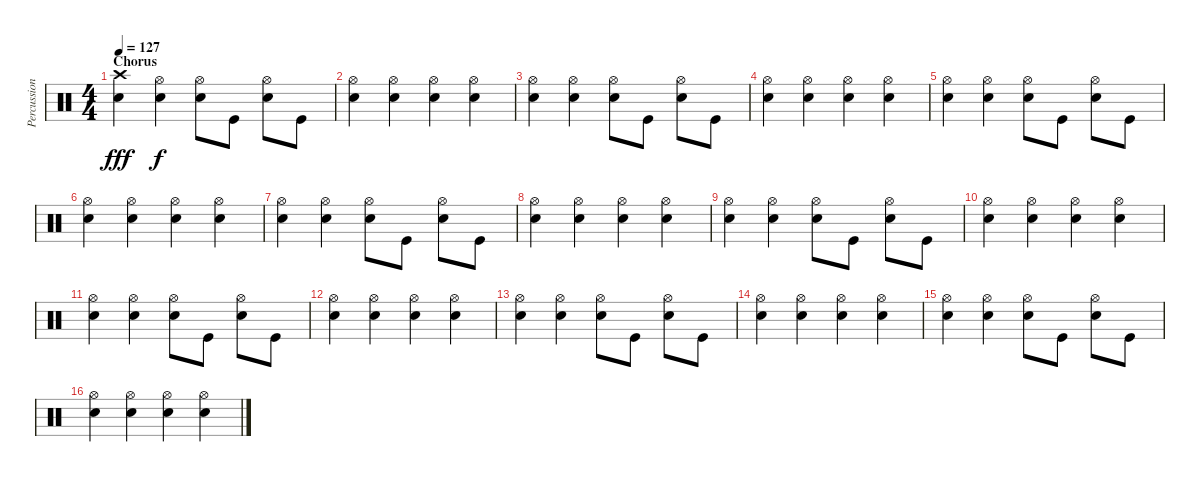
\track ("Percussion" "Percussion") {instrument percussion}
\staff {score}
\articulation defaults
\ts (4 4)
\section ("" "Chorus")
\tempo 127
\clef neutral
\ks c
("Crash high (hit)" "Electric Snare (hit)").4{dy fff} ("Hi-Hat (open)" "Electric Snare (hit)").4{dy f} ("Hi-Hat (open)" "Electric Snare (hit)").8 "Kick (hit)".8 ("Hi-Hat (open)" "Electric Snare (hit)").8 "Kick (hit)".8 |
("Hi-Hat (open)" "Electric Snare (hit)").4 ("Hi-Hat (open)" "Electric Snare (hit)").4 ("Hi-Hat (open)" "Electric Snare (hit)").4 ("Hi-Hat (open)" "Electric Snare (hit)").4 |
("Hi-Hat (open)" "Electric Snare (hit)").4 ("Hi-Hat (open)" "Electric Snare (hit)").4 ("Hi-Hat (open)" "Electric Snare (hit)").8 "Kick (hit)".8 ("Hi-Hat (open)" "Electric Snare (hit)").8 "Kick (hit)".8 |
("Hi-Hat (open)" "Electric Snare (hit)").4 ("Hi-Hat (open)" "Electric Snare (hit)").4 ("Hi-Hat (open)" "Electric Snare (hit)").4 ("Hi-Hat (open)" "Electric Snare (hit)").4 |
("Hi-Hat (open)" "Electric Snare (hit)").4 ("Hi-Hat (open)" "Electric Snare (hit)").4 ("Hi-Hat (open)" "Electric Snare (hit)").8 "Kick (hit)".8 ("Hi-Hat (open)" "Electric Snare (hit)").8 "Kick (hit)".8 |
("Hi-Hat (open)" "Electric Snare (hit)").4 ("Hi-Hat (open)" "Electric Snare (hit)").4 ("Hi-Hat (open)" "Electric Snare (hit)").4 ("Hi-Hat (open)" "Electric Snare (hit)").4 |
("Hi-Hat (open)" "Electric Snare (hit)").4 ("Hi-Hat (open)" "Electric Snare (hit)").4 ("Hi-Hat (open)" "Electric Snare (hit)").8 "Kick (hit)".8 ("Hi-Hat (open)" "Electric Snare (hit)").8 "Kick (hit)".8 |
("Hi-Hat (open)" "Electric Snare (hit)").4 ("Hi-Hat (open)" "Electric Snare (hit)").4 ("Hi-Hat (open)" "Electric Snare (hit)").4 ("Hi-Hat (open)" "Electric Snare (hit)").4 |
("Hi-Hat (open)" "Electric Snare (hit)").4 ("Hi-Hat (open)" "Electric Snare (hit)").4 ("Hi-Hat (open)" "Electric Snare (hit)").8 "Kick (hit)".8 ("Hi-Hat (open)" "Electric Snare (hit)").8 "Kick (hit)".8 |
("Hi-Hat (open)" "Electric Snare (hit)").4 ("Hi-Hat (open)" "Electric Snare (hit)").4 ("Hi-Hat (open)" "Electric Snare (hit)").4 ("Hi-Hat (open)" "Electric Snare (hit)").4 |
("Hi-Hat (open)" "Electric Snare (hit)").4 ("Hi-Hat (open)" "Electric Snare (hit)").4 ("Hi-Hat (open)" "Electric Snare (hit)").8 "Kick (hit)".8 ("Hi-Hat (open)" "Electric Snare (hit)").8 "Kick (hit)".8 |
("Hi-Hat (open)" "Electric Snare (hit)").4 ("Hi-Hat (open)" "Electric Snare (hit)").4 ("Hi-Hat (open)" "Electric Snare (hit)").4 ("Hi-Hat (open)" "Electric Snare (hit)").4 |
("Hi-Hat (open)" "Electric Snare (hit)").4 ("Hi-Hat (open)" "Electric Snare (hit)").4 ("Hi-Hat (open)" "Electric Snare (hit)").8 "Kick (hit)".8 ("Hi-Hat (open)" "Electric Snare (hit)").8 "Kick (hit)".8 |
("Hi-Hat (open)" "Electric Snare (hit)").4 ("Hi-Hat (open)" "Electric Snare (hit)").4 ("Hi-Hat (open)" "Electric Snare (hit)").4 ("Hi-Hat (open)" "Electric Snare (hit)").4 |
("Hi-Hat (open)" "Electric Snare (hit)").4 ("Hi-Hat (open)" "Electric Snare (hit)").4 ("Hi-Hat (open)" "Electric Snare (hit)").8 "Kick (hit)".8 ("Hi-Hat (open)" "Electric Snare (hit)").8 "Kick (hit)".8 |
("Hi-Hat (open)" "Electric Snare (hit)").4 ("Hi-Hat (open)" "Electric Snare (hit)").4 ("Hi-Hat (open)" "Electric Snare (hit)").4 ("Hi-Hat (open)" "Electric Snare (hit)").4
